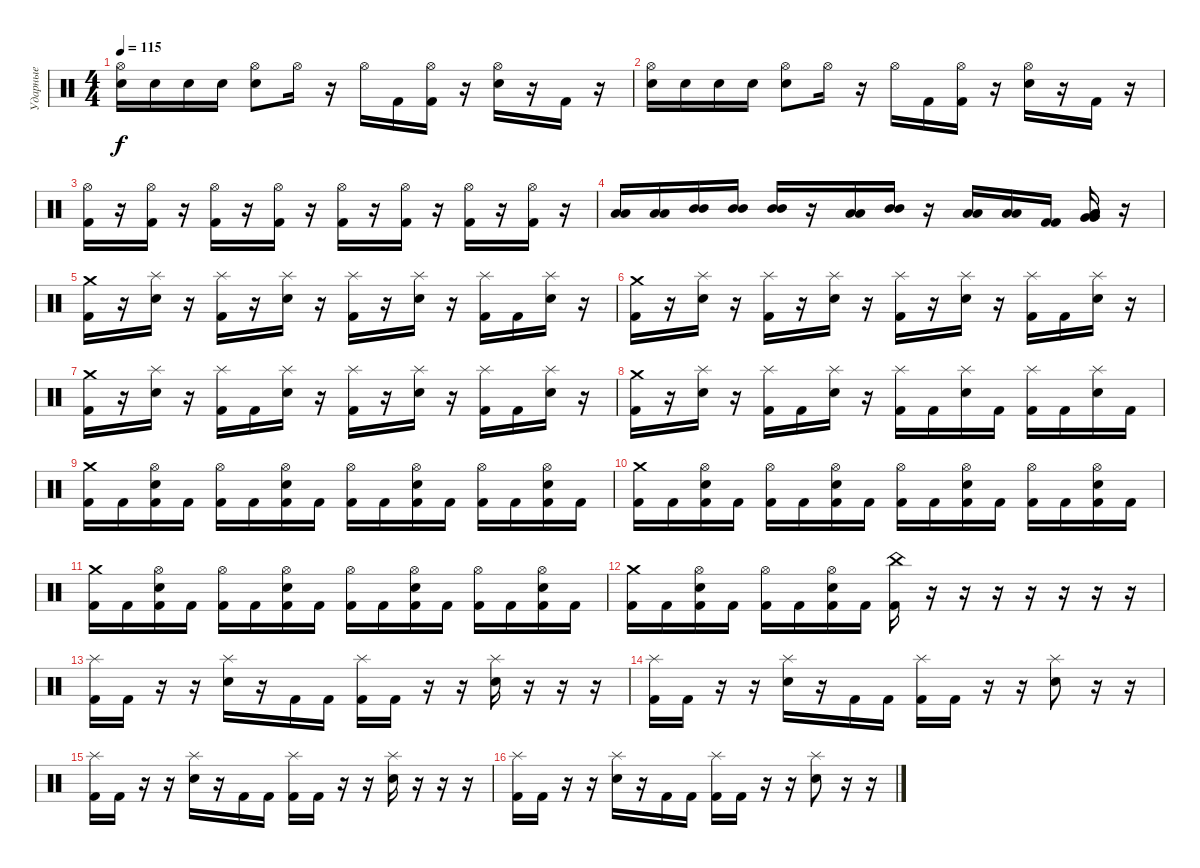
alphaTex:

\track ("Ударные" "Ударные") {instrument percussion}
\staff {score}
\articulation defaults
\ts (4 4)
\tempo 115
\clef neutral
\ks c
("Hi-Hat (open)" "Electric Snare (hit)").16{dy f} "Electric Snare (hit)".16 "Electric Snare (hit)".16 "Electric Snare (hit)".16 ("Hi-Hat (open)" "Electric Snare (hit)").8 "Hi-Hat (open)".16 r.16 "Hi-Hat (open)".16 "Kick (hit) 2".16 ("Hi-Hat (open)" "Kick (hit) 2").16 r.16 ("Hi-Hat (open)" "Electric Snare (hit)").16 r.16 "Kick (hit) 2".16 r.16 |
("Hi-Hat (open)" "Electric Snare (hit)").16 "Electric Snare (hit)".16 "Electric Snare (hit)".16 "Electric Snare (hit)".16 ("Hi-Hat (open)" "Electric Snare (hit)").8 "Hi-Hat (open)".16 r.16 "Hi-Hat (open)".16 "Kick (hit) 2".16 ("Hi-Hat (open)" "Kick (hit) 2").16 r.16 ("Hi-Hat (open)" "Electric Snare (hit)").16 r.16 "Kick (hit) 2".16 r.16 |
("Kick (hit) 2" "Hi-Hat (open)").16 r.16 ("Kick (hit) 2" "Hi-Hat (open)").16 r.16 ("Kick (hit) 2" "Hi-Hat (open)").16 r.16 ("Hi-Hat (open)" "Kick (hit) 2").16 r.16 ("Hi-Hat (open)" "Kick (hit) 2").16 r.16 ("Hi-Hat (open)" "Kick (hit) 2").16 r.16 ("Hi-Hat (open)" "Kick (hit) 2").16 r.16 ("Hi-Hat (open)" "Kick (hit) 2").16 r.16 |
("Low Tom (hit)" "Low Tom (hit)").16 ("Low Tom (hit)" "Low Tom (hit)").16 ("Mid Tom (hit)" "Mid Tom (hit)").16 ("Mid Tom (hit)" "Mid Tom (hit)").16 ("Mid Tom (hit)" "Mid Tom (hit)").16 r.16 ("Low Tom (hit)" "Low Tom (hit)").16 ("Mid Tom (hit)" "Mid Tom (hit)").16 r.16 ("Low Tom (hit)" "Low Tom (hit)").16 ("Low Tom (hit)" "Low Tom (hit)").16 ("Kick (hit) 2" "Kick (hit) 2").16 ("Very Low Tom (hit)" "Very Low Tom (hit)" "Low Floor Tom (hit)" "Low Floor Tom (hit)").16 r.16 |
("Crash medium (hit)" "Kick (hit) 2").16 r.16 ("Splash (hit)" "Electric Snare (hit)").16 r.16 ("Splash (hit)" "Kick (hit) 2").16 r.16 ("Splash (hit)" "Electric Snare (hit)").16 r.16 ("Splash (hit)" "Kick (hit) 2").16 r.16 ("Splash (hit)" "Electric Snare (hit)").16 r.16 ("Splash (hit)" "Kick (hit) 2").16 "Kick (hit) 2".16 ("Splash (hit)" "Electric Snare (hit)").16 r.16 |
("Crash medium (hit)" "Kick (hit) 2").16 r.16 ("Splash (hit)" "Electric Snare (hit)").16 r.16 ("Splash (hit)" "Kick (hit) 2").16 r.16 ("Splash (hit)" "Electric Snare (hit)").16 r.16 ("Splash (hit)" "Kick (hit) 2").16 r.16 ("Splash (hit)" "Electric Snare (hit)").16 r.16 ("Splash (hit)" "Kick (hit) 2").16 "Kick (hit) 2".16 ("Splash (hit)" "Electric Snare (hit)").16 r.16 |
("Crash medium (hit)" "Kick (hit) 2").16 r.16 ("Splash (hit)" "Electric Snare (hit)").16 r.16 ("Splash (hit)" "Kick (hit) 2").16 "Kick (hit) 2".16 ("Splash (hit)" "Electric Snare (hit)").16 r.16 ("Splash (hit)" "Kick (hit) 2").16 r.16 ("Splash (hit)" "Electric Snare (hit)").16 r.16 ("Splash (hit)" "Kick (hit) 2").16 "Kick (hit) 2".16 ("Splash (hit)" "Electric Snare (hit)").16 r.16 |
("Crash medium (hit)" "Kick (hit) 2").16 r.16 ("Splash (hit)" "Electric Snare (hit)").16 r.16 ("Splash (hit)" "Kick (hit) 2").16 "Kick (hit) 2".16 ("Splash (hit)" "Electric Snare (hit)").16 r.16 ("Splash (hit)" "Kick (hit) 2").16 "Kick (hit) 2".16 ("Splash (hit)" "Electric Snare (hit)").16 "Kick (hit) 2".16 ("Splash (hit)" "Kick (hit) 2").16 "Kick (hit) 2".16 ("Splash (hit)" "Electric Snare (hit)").16 "Kick (hit) 2".16 |
("Crash medium (hit)" "Kick (hit) 2").16 "Kick (hit) 2".16 ("Hi-Hat (open)" "Electric Snare (hit)" "Kick (hit) 2").16 "Kick (hit) 2".16 ("Hi-Hat (open)" "Kick (hit) 2").16 "Kick (hit) 2".16 ("Hi-Hat (open)" "Electric Snare (hit)" "Kick (hit) 2").16 "Kick (hit) 2".16 ("Hi-Hat (open)" "Kick (hit) 2").16 "Kick (hit) 2".16 ("Hi-Hat (open)" "Electric Snare (hit)" "Kick (hit) 2").16 "Kick (hit) 2".16 ("Hi-Hat (open)" "Kick (hit) 2").16 "Kick (hit) 2".16 ("Hi-Hat (open)" "Electric Snare (hit)" "Kick (hit) 2").16 "Kick (hit) 2".16 |
("Crash medium (hit)" "Kick (hit) 2").16 "Kick (hit) 2".16 ("Hi-Hat (open)" "Electric Snare (hit)" "Kick (hit) 2").16 "Kick (hit) 2".16 ("Hi-Hat (open)" "Kick (hit) 2").16 "Kick (hit) 2".16 ("Hi-Hat (open)" "Electric Snare (hit)" "Kick (hit) 2").16 "Kick (hit) 2".16 ("Hi-Hat (open)" "Kick (hit) 2").16 "Kick (hit) 2".16 ("Hi-Hat (open)" "Electric Snare (hit)" "Kick (hit) 2").16 "Kick (hit) 2".16 ("Hi-Hat (open)" "Kick (hit) 2").16 "Kick (hit) 2".16 ("Hi-Hat (open)" "Electric Snare (hit)" "Kick (hit) 2").16 "Kick (hit) 2".16 |
("Crash medium (hit)" "Kick (hit) 2").16 "Kick (hit) 2".16 ("Hi-Hat (open)" "Electric Snare (hit)" "Kick (hit) 2").16 "Kick (hit) 2".16 ("Hi-Hat (open)" "Kick (hit) 2").16 "Kick (hit) 2".16 ("Hi-Hat (open)" "Electric Snare (hit)" "Kick (hit) 2").16 "Kick (hit) 2".16 ("Hi-Hat (open)" "Kick (hit) 2").16 "Kick (hit) 2".16 ("Hi-Hat (open)" "Electric Snare (hit)" "Kick (hit) 2").16 "Kick (hit) 2".16 ("Hi-Hat (open)" "Kick (hit) 2").16 "Kick (hit) 2".16 ("Hi-Hat (open)" "Electric Snare (hit)" "Kick (hit) 2").16 "Kick (hit) 2".16 |
("Crash medium (hit)" "Kick (hit) 2").16 "Kick (hit) 2".16 ("Hi-Hat (open)" "Electric Snare (hit)" "Kick (hit) 2").16 "Kick (hit) 2".16 ("Hi-Hat (open)" "Kick (hit) 2").16 "Kick (hit) 2".16 ("Hi-Hat (open)" "Electric Snare (hit)" "Kick (hit) 2").16 "Kick (hit) 2".16 ("China (hit)" "Kick (hit) 2").16 r.16 r.16 r.16 r.16 r.16 r.16 r.16 |
("Splash (hit)" "Kick (hit) 2").16 "Kick (hit) 2".16 r.16 r.16 ("Splash (hit)" "Electric Snare (hit)").16 r.16 "Kick (hit) 2".16 "Kick (hit) 2".16 ("Splash (hit)" "Kick (hit) 2").16 "Kick (hit) 2".16 r.16 r.16 ("Splash (hit)" "Electric Snare (hit)").16 r.16 r.16 r.16 |
("Splash (hit)" "Kick (hit) 2").16 "Kick (hit) 2".16 r.16 r.16 ("Splash (hit)" "Electric Snare (hit)").16 r.16 "Kick (hit) 2".16 "Kick (hit) 2".16 ("Splash (hit)" "Kick (hit) 2").16 "Kick (hit) 2".16 r.16 r.16 ("Splash (hit)" "Electric Snare (hit)").8 r.16 r.16 |
("Splash (hit)" "Kick (hit) 2").16 "Kick (hit) 2".16 r.16 r.16 ("Splash (hit)" "Electric Snare (hit)").16 r.16 "Kick (hit) 2".16 "Kick (hit) 2".16 ("Splash (hit)" "Kick (hit) 2").16 "Kick (hit) 2".16 r.16 r.16 ("Splash (hit)" "Electric Snare (hit)").16 r.16 r.16 r.16 |
("Splash (hit)" "Kick (hit) 2").16 "Kick (hit) 2".16 r.16 r.16 ("Splash (hit)" "Electric Snare (hit)").16 r.16 "Kick (hit) 2".16 "Kick (hit) 2".16 ("Splash (hit)" "Kick (hit) 2").16 "Kick (hit) 2".16 r.16 r.16 ("Splash (hit)" "Electric Snare (hit)").8 r.16 r.16
